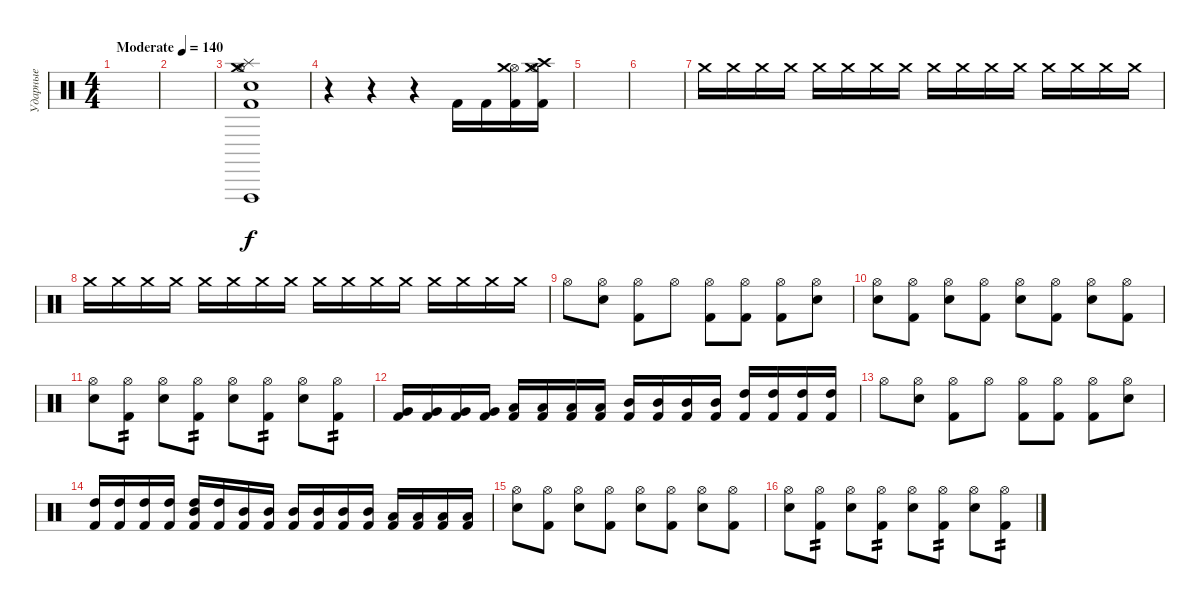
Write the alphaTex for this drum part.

\track ("Ударные" "Ударные") {instrument percussion}
\staff {score}
\articulation defaults
\ts (4 4)
\tempo (140 "Moderate")
\clef neutral
\ks c
|
|
("Hi-Hat (open)" "Vibraslap (hit)" "Crash medium (hit)" "Splash (hit)" "Kick (hit) 2" "Snare (hit) 2").1 |
r.4 r.4 r.4 "Kick (hit) 2".16 "Kick (hit) 2".16 ("Kick (hit) 2" "Hi-Hat (open)" "Crash medium (hit)").16 ("Kick (hit) 2" "Crash medium (hit)" "Hi-Hat (open)" "Crash high (hit)").16 |
|
|
"Crash medium (hit)".16{volume 4} "Crash medium (hit)".16 "Crash medium (hit)".16 "Crash medium (hit)".16 "Crash medium (hit)".16 "Crash medium (hit)".16 "Crash medium (hit)".16 "Crash medium (hit)".16 "Crash medium (hit)".16{volume 7} "Crash medium (hit)".16 "Crash medium (hit)".16 "Crash medium (hit)".16 "Crash medium (hit)".16 "Crash medium (hit)".16 "Crash medium (hit)".16 "Crash medium (hit)".16 |
"Crash medium (hit)".16{volume 10} "Crash medium (hit)".16 "Crash medium (hit)".16 "Crash medium (hit)".16 "Crash medium (hit)".16 "Crash medium (hit)".16 "Crash medium (hit)".16 "Crash medium (hit)".16 "Crash medium (hit)".16{volume 13} "Crash medium (hit)".16 "Crash medium (hit)".16 "Crash medium (hit)".16 "Crash medium (hit)".16 "Crash medium (hit)".16 "Crash medium (hit)".16 "Crash medium (hit)".16 |
"Hi-Hat (open)".8 ("Hi-Hat (open)" "Snare (hit) 2").8 ("Hi-Hat (open)" "Kick (hit) 2").8 "Hi-Hat (open)".8 ("Hi-Hat (open)" "Kick (hit) 2").8 ("Hi-Hat (open)" "Kick (hit) 2").8 ("Hi-Hat (open)" "Kick (hit) 2").8 ("Hi-Hat (open)" "Snare (hit) 2").8 |
("Hi-Hat (open)" "Snare (hit) 2").8 ("Hi-Hat (open)" "Kick (hit) 2").8 ("Hi-Hat (open)" "Snare (hit) 2").8 ("Hi-Hat (open)" "Kick (hit) 2").8 ("Hi-Hat (open)" "Snare (hit) 2").8 ("Hi-Hat (open)" "Kick (hit) 2").8 ("Hi-Hat (open)" "Snare (hit) 2").8 ("Hi-Hat (open)" "Kick (hit) 2").8 |
("Hi-Hat (open)" "Snare (hit) 2").8 ("Hi-Hat (open)" "Kick (hit) 2").8{tp 2} ("Hi-Hat (open)" "Snare (hit) 2").8 ("Hi-Hat (open)" "Kick (hit) 2").8{tp 2} ("Hi-Hat (open)" "Snare (hit) 2").8 ("Hi-Hat (open)" "Kick (hit) 2").8{tp 2} ("Hi-Hat (open)" "Snare (hit) 2").8 ("Hi-Hat (open)" "Kick (hit) 2").8{tp 2} |
("Very Low Tom (hit)" "Kick (hit) 2").16 ("Very Low Tom (hit)" "Kick (hit) 2").16 ("Very Low Tom (hit)" "Kick (hit) 2").16 ("Very Low Tom (hit)" "Kick (hit) 2").16 ("Low Tom (hit)" "Kick (hit) 2").16 ("Low Tom (hit)" "Kick (hit) 2").16 ("Low Tom (hit)" "Kick (hit) 2").16 ("Low Tom (hit)" "Kick (hit) 2").16 ("Mid Tom (hit)" "Kick (hit) 2").16 ("Mid Tom (hit)" "Kick (hit) 2").16 ("Mid Tom (hit)" "Kick (hit) 2").16 ("Mid Tom (hit)" "Kick (hit) 2").16 ("High Tom (hit)" "Kick (hit) 2").16 ("High Tom (hit)" "Kick (hit) 2").16 ("High Tom (hit)" "Kick (hit) 2").16 ("High Tom (hit)" "Kick (hit) 2").16 |
"Hi-Hat (open)".8 ("Hi-Hat (open)" "Snare (hit) 2").8 ("Hi-Hat (open)" "Kick (hit) 2").8 "Hi-Hat (open)".8 ("Hi-Hat (open)" "Kick (hit) 2").8 ("Hi-Hat (open)" "Kick (hit) 2").8 ("Hi-Hat (open)" "Kick (hit) 2").8 ("Hi-Hat (open)" "Snare (hit) 2").8 |
("Kick (hit) 2" "High Tom (hit)").16 ("Kick (hit) 2" "High Tom (hit)").16 ("Kick (hit) 2" "High Tom (hit)").16 ("Kick (hit) 2" "High Tom (hit)").16 ("Kick (hit) 2" "Mid Tom (hit)" "High Tom (hit)").16 ("Kick (hit) 2" "High Tom (hit)").16 ("Kick (hit) 2" "Mid Tom (hit)").16 ("Kick (hit) 2" "Mid Tom (hit)").16 ("Kick (hit) 2" "Mid Tom (hit)").16 ("Kick (hit) 2" "Mid Tom (hit)").16 ("Kick (hit) 2" "Mid Tom (hit)").16 ("Kick (hit) 2" "Mid Tom (hit)").16 ("Kick (hit) 2" "Low Tom (hit)").16 ("Kick (hit) 2" "Low Tom (hit)").16 ("Kick (hit) 2" "Low Tom (hit)").16 ("Kick (hit) 2" "Low Tom (hit)").16 |
("Hi-Hat (open)" "Snare (hit) 2").8 ("Hi-Hat (open)" "Kick (hit) 2").8 ("Hi-Hat (open)" "Snare (hit) 2").8 ("Hi-Hat (open)" "Kick (hit) 2").8 ("Hi-Hat (open)" "Snare (hit) 2").8 ("Hi-Hat (open)" "Kick (hit) 2").8 ("Hi-Hat (open)" "Snare (hit) 2").8 ("Hi-Hat (open)" "Kick (hit) 2").8 |
("Hi-Hat (open)" "Snare (hit) 2").8 ("Hi-Hat (open)" "Kick (hit) 2").8{tp 2} ("Hi-Hat (open)" "Snare (hit) 2").8 ("Hi-Hat (open)" "Kick (hit) 2").8{tp 2} ("Hi-Hat (open)" "Snare (hit) 2").8 ("Hi-Hat (open)" "Kick (hit) 2").8{tp 2} ("Hi-Hat (open)" "Snare (hit) 2").8 ("Hi-Hat (open)" "Kick (hit) 2").8{tp 2}
